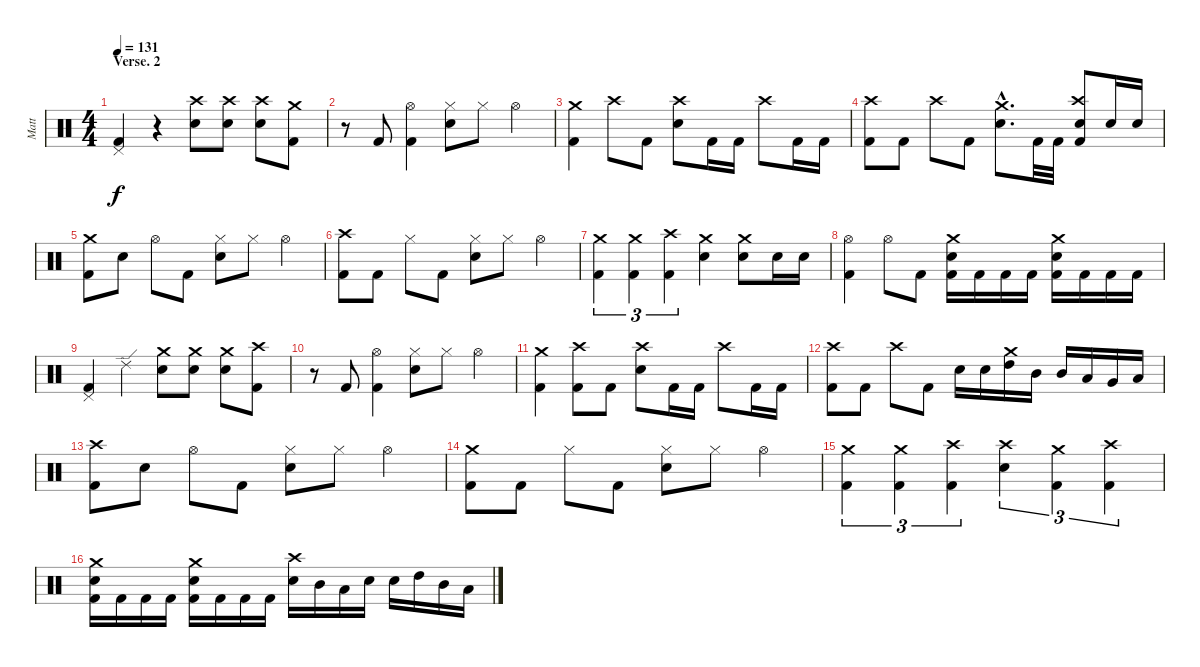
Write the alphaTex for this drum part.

\track ("Matt" "Matt") {instrument percussion}
\staff {score}
\articulation defaults
\ts (4 4)
\section ("" "Verse. 2")
\tempo 131
\clef neutral
\ks c
("Pedal Hi-Hat (hit)" "Kick (hit) 2").4{dy f} r.4 ("Crash high (hit)" "Electric Snare (hit)").8 ("Crash high (hit)" "Electric Snare (hit)").8 ("Crash high (hit)" "Electric Snare (hit)").8 ("Crash medium (hit)" "Kick (hit) 2").8 |
r.8 "Kick (hit) 2".8 ("Hi-Hat (open)" "Kick (hit) 2").4 ("Hi-Hat (closed)" "Electric Snare (hit)").8 "Hi-Hat (closed)".8 "Hi-Hat (open)".4 |
("Crash medium (hit)" "Kick (hit) 2").4 "Crash high (hit)".8 "Kick (hit) 2".8 ("Crash high (hit)" "Electric Snare (hit)").8 "Kick (hit) 2".16 "Kick (hit) 2".16 "Crash high (hit)".8 "Kick (hit) 2".16 "Kick (hit) 2".16 |
("Crash high (hit)" "Kick (hit) 2").8 "Kick (hit) 2".8 "Crash high (hit)".8 "Kick (hit) 2".8 ("Crash medium (hit)"{hac} "Electric Snare (hit)"{hac}).8{d} "Kick (hit) 2".32 "Kick (hit) 2".32 ("Crash high (hit)" "Electric Snare (hit)" "Kick (hit) 2").8 "Electric Snare (hit)".16 "Electric Snare (hit)".16 |
("Crash medium (hit)" "Kick (hit) 2").8 "Electric Snare (hit)".8 "Hi-Hat (open)".8 "Kick (hit) 2".8 ("Hi-Hat (closed)" "Electric Snare (hit)").8 "Hi-Hat (closed)".8 "Hi-Hat (open)".4 |
("Crash high (hit)" "Kick (hit) 2").8 "Kick (hit) 2".8 "Hi-Hat (closed)".8 "Kick (hit) 2".8 ("Hi-Hat (closed)" "Electric Snare (hit)").8 "Hi-Hat (closed)".8 "Hi-Hat (open)".4 |
("Crash medium (hit)" "Kick (hit) 2").4{tu (3 2)} ("Crash medium (hit)" "Kick (hit) 2").4{tu (3 2)} ("Crash high (hit)" "Kick (hit) 2").4{tu (3 2)} ("Crash medium (hit)" "Electric Snare (hit)").4 ("Crash medium (hit)" "Electric Snare (hit)").8 "Electric Snare (hit)".16 "Electric Snare (hit)".16 |
("Hi-Hat (open)" "Kick (hit) 2").4 "Hi-Hat (open)".8 "Kick (hit) 2".8 ("Crash medium (hit)" "Electric Snare (hit)" "Kick (hit) 2").16 "Kick (hit) 2".16 "Kick (hit) 2".16 "Kick (hit) 2".16 ("Crash medium (hit)" "Electric Snare (hit)" "Kick (hit) 2").16 "Kick (hit) 2".16 "Kick (hit) 2".16 "Kick (hit) 2".16 |
("Pedal Hi-Hat (hit)" "Kick (hit) 2").4 "Ride (edge) 2".4 ("Crash medium (hit)" "Electric Snare (hit)").8 ("Crash medium (hit)" "Electric Snare (hit)").8 ("Crash medium (hit)" "Electric Snare (hit)").8 ("Crash high (hit)" "Kick (hit) 2").8 |
r.8 "Kick (hit) 2".8 ("Hi-Hat (open)" "Kick (hit) 2").4 ("Hi-Hat (closed)" "Electric Snare (hit)").8 "Hi-Hat (closed)".8 "Hi-Hat (open)".4 |
("Crash medium (hit)" "Kick (hit) 2").4 ("Crash high (hit)" "Kick (hit) 2").8 "Kick (hit) 2".8 ("Crash high (hit)" "Electric Snare (hit)").8 "Kick (hit) 2".16 "Kick (hit) 2".16 "Crash high (hit)".8 "Kick (hit) 2".16 "Kick (hit) 2".16 |
("Crash high (hit)" "Kick (hit) 2").8 "Kick (hit) 2".8 "Crash high (hit)".8 "Kick (hit) 2".8 "Electric Snare (hit)".16 "Electric Snare (hit)".16 ("Crash medium (hit)" "High Tom (hit)").16 "Mid Tom (hit)".16 "Mid Tom (hit)".16 "Low Tom (hit)".16 "Very Low Tom (hit)".16 "Low Floor Tom (hit)".16 |
("Crash high (hit)" "Kick (hit) 2").8 "Electric Snare (hit)".8 "Hi-Hat (open)".8 "Kick (hit) 2".8 ("Hi-Hat (closed)" "Electric Snare (hit)").8 "Hi-Hat (closed)".8 "Hi-Hat (open)".4 |
("Crash medium (hit)" "Kick (hit) 2").8 "Kick (hit) 2".8 "Hi-Hat (closed)".8 "Kick (hit) 2".8 ("Hi-Hat (closed)" "Electric Snare (hit)").8 "Hi-Hat (closed)".8 "Hi-Hat (open)".4 |
("Crash medium (hit)" "Kick (hit) 2").4{tu (3 2)} ("Crash medium (hit)" "Kick (hit) 2").4{tu (3 2)} ("Crash high (hit)" "Kick (hit) 2").4{tu (3 2)} ("Crash high (hit)" "Electric Snare (hit)").4{tu (3 2)} ("Crash medium (hit)" "Kick (hit) 2").4{tu (3 2)} ("Crash high (hit)" "Kick (hit) 2").4{tu (3 2)} |
("Crash medium (hit)" "Electric Snare (hit)" "Kick (hit) 2").16 "Kick (hit) 2".16 "Kick (hit) 2".16 "Kick (hit) 2".16 ("Crash medium (hit)" "Electric Snare (hit)" "Kick (hit) 2").16 "Kick (hit) 2".16 "Kick (hit) 2".16 "Kick (hit) 2".16 ("Crash high (hit)" "Electric Snare (hit)").16 "Mid Tom (hit)".16 "Low Tom (hit)".16 "Electric Snare (hit)".16 "Electric Snare (hit)".16 "High Tom (hit)".16 "Mid Tom (hit)".16 "Low Tom (hit)".16
